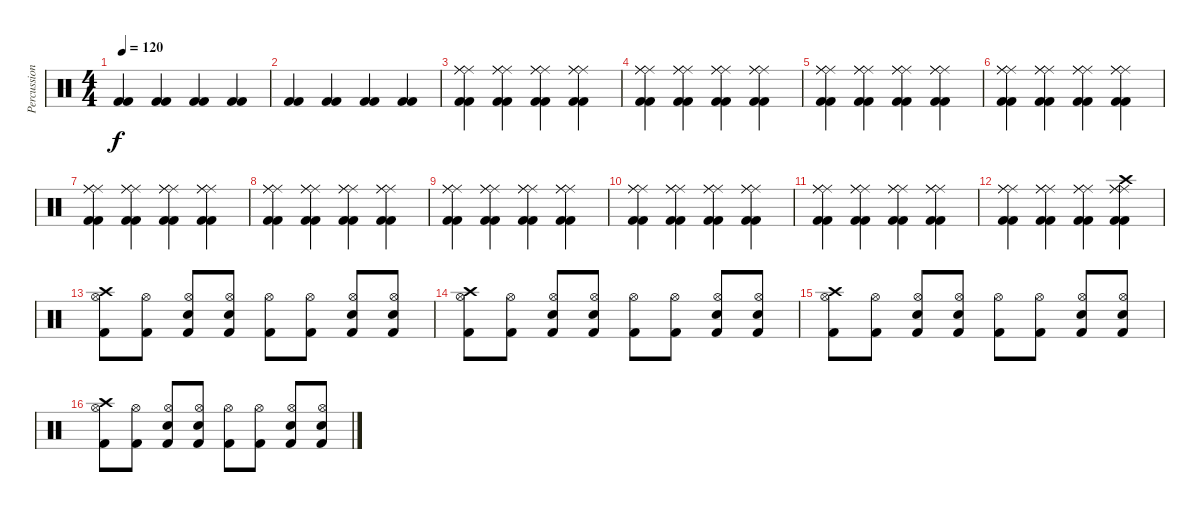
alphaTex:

\track ("Percussioni" "Percussion") {instrument percussion}
\staff {score}
\articulation defaults
\ts (4 4)
\tempo 120
\clef neutral
\ks c
("Kick (hit) 2" "Kick (hit) 2").4{dy f} ("Kick (hit) 2" "Kick (hit) 2").4 ("Kick (hit) 2" "Kick (hit) 2").4 ("Kick (hit) 2" "Kick (hit) 2").4 |
("Kick (hit) 2" "Kick (hit) 2").4 ("Kick (hit) 2" "Kick (hit) 2").4 ("Kick (hit) 2" "Kick (hit) 2").4 ("Kick (hit) 2" "Kick (hit) 2").4 |
("Kick (hit) 2" "Kick (hit) 2" "Ride (middle)" "Ride (middle)" "Ride (middle)").4 ("Kick (hit) 2" "Kick (hit) 2" "Ride (middle)" "Ride (middle)" "Ride (middle)").4 ("Kick (hit) 2" "Kick (hit) 2" "Ride (middle)" "Ride (middle)" "Ride (middle)").4 ("Kick (hit) 2" "Kick (hit) 2" "Ride (middle)" "Ride (middle)" "Ride (middle)").4 |
("Kick (hit) 2" "Kick (hit) 2" "Ride (middle)" "Ride (middle)" "Ride (middle)").4 ("Kick (hit) 2" "Kick (hit) 2" "Ride (middle)" "Ride (middle)" "Ride (middle)").4 ("Kick (hit) 2" "Kick (hit) 2" "Ride (middle)" "Ride (middle)" "Ride (middle)").4 ("Kick (hit) 2" "Kick (hit) 2" "Ride (middle)" "Ride (middle)" "Ride (middle)").4 |
("Kick (hit) 2" "Kick (hit) 2" "Ride (middle)" "Ride (middle)" "Ride (middle)").4 ("Kick (hit) 2" "Kick (hit) 2" "Ride (middle)" "Ride (middle)" "Ride (middle)").4 ("Kick (hit) 2" "Kick (hit) 2" "Ride (middle)" "Ride (middle)" "Ride (middle)").4 ("Kick (hit) 2" "Kick (hit) 2" "Ride (middle)" "Ride (middle)" "Ride (middle)").4 |
("Kick (hit) 2" "Kick (hit) 2" "Ride (middle)" "Ride (middle)" "Ride (middle)").4 ("Kick (hit) 2" "Kick (hit) 2" "Ride (middle)" "Ride (middle)" "Ride (middle)").4 ("Kick (hit) 2" "Kick (hit) 2" "Ride (middle)" "Ride (middle)" "Ride (middle)").4 ("Kick (hit) 2" "Kick (hit) 2" "Ride (middle)" "Ride (middle)" "Ride (middle)").4 |
("Kick (hit) 2" "Kick (hit) 2" "Ride (middle)" "Ride (middle)" "Ride (middle)").4 ("Kick (hit) 2" "Kick (hit) 2" "Ride (middle)" "Ride (middle)" "Ride (middle)").4 ("Kick (hit) 2" "Kick (hit) 2" "Ride (middle)" "Ride (middle)" "Ride (middle)").4 ("Kick (hit) 2" "Kick (hit) 2" "Ride (middle)" "Ride (middle)" "Ride (middle)").4 |
("Kick (hit) 2" "Kick (hit) 2" "Ride (middle)" "Ride (middle)" "Ride (middle)").4 ("Kick (hit) 2" "Kick (hit) 2" "Ride (middle)" "Ride (middle)" "Ride (middle)").4 ("Kick (hit) 2" "Kick (hit) 2" "Ride (middle)" "Ride (middle)" "Ride (middle)").4 ("Kick (hit) 2" "Kick (hit) 2" "Ride (middle)" "Ride (middle)" "Ride (middle)").4 |
("Kick (hit) 2" "Kick (hit) 2" "Ride (middle)" "Ride (middle)" "Ride (middle)").4 ("Kick (hit) 2" "Kick (hit) 2" "Ride (middle)" "Ride (middle)" "Ride (middle)").4 ("Kick (hit) 2" "Kick (hit) 2" "Ride (middle)" "Ride (middle)" "Ride (middle)").4 ("Kick (hit) 2" "Kick (hit) 2" "Ride (middle)" "Ride (middle)" "Ride (middle)").4 |
("Kick (hit) 2" "Kick (hit) 2" "Ride (middle)" "Ride (middle)" "Ride (middle)").4 ("Kick (hit) 2" "Kick (hit) 2" "Ride (middle)" "Ride (middle)" "Ride (middle)").4 ("Kick (hit) 2" "Kick (hit) 2" "Ride (middle)" "Ride (middle)" "Ride (middle)").4 ("Kick (hit) 2" "Kick (hit) 2" "Ride (middle)" "Ride (middle)" "Ride (middle)").4 |
("Kick (hit) 2" "Kick (hit) 2" "Ride (middle)" "Ride (middle)" "Ride (middle)").4 ("Kick (hit) 2" "Kick (hit) 2" "Ride (middle)" "Ride (middle)" "Ride (middle)").4 ("Kick (hit) 2" "Kick (hit) 2" "Ride (middle)" "Ride (middle)" "Ride (middle)").4 ("Kick (hit) 2" "Kick (hit) 2" "Ride (middle)" "Ride (middle)" "Ride (middle)").4 |
("Kick (hit) 2" "Kick (hit) 2" "Ride (middle)" "Ride (middle)" "Ride (middle)").4 ("Kick (hit) 2" "Kick (hit) 2" "Ride (middle)" "Ride (middle)" "Ride (middle)").4 ("Kick (hit) 2" "Kick (hit) 2" "Ride (middle)" "Ride (middle)" "Ride (middle)").4 ("Crash high (hit)" "Kick (hit) 2" "Kick (hit) 2" "Ride (middle)" "Ride (middle)" "Ride (middle)").4 |
("Hi-Hat (open)" "Kick (hit) 2" "Crash high (hit)").8 ("Hi-Hat (open)" "Kick (hit) 2").8 ("Hi-Hat (open)" "Kick (hit) 2" "Electric Snare (hit)").8 ("Hi-Hat (open)" "Kick (hit) 2" "Electric Snare (hit)").8 ("Hi-Hat (open)" "Kick (hit) 2").8 ("Hi-Hat (open)" "Kick (hit) 2").8 ("Hi-Hat (open)" "Kick (hit) 2" "Electric Snare (hit)").8 ("Hi-Hat (open)" "Kick (hit) 2" "Electric Snare (hit)").8 |
("Hi-Hat (open)" "Kick (hit) 2" "Crash high (hit)").8 ("Hi-Hat (open)" "Kick (hit) 2").8 ("Hi-Hat (open)" "Kick (hit) 2" "Electric Snare (hit)").8 ("Hi-Hat (open)" "Kick (hit) 2" "Electric Snare (hit)").8 ("Hi-Hat (open)" "Kick (hit) 2").8 ("Hi-Hat (open)" "Kick (hit) 2").8 ("Hi-Hat (open)" "Kick (hit) 2" "Electric Snare (hit)").8 ("Hi-Hat (open)" "Kick (hit) 2" "Electric Snare (hit)").8 |
("Hi-Hat (open)" "Kick (hit) 2" "Crash high (hit)").8 ("Hi-Hat (open)" "Kick (hit) 2").8 ("Hi-Hat (open)" "Kick (hit) 2" "Electric Snare (hit)").8 ("Hi-Hat (open)" "Kick (hit) 2" "Electric Snare (hit)").8 ("Hi-Hat (open)" "Kick (hit) 2").8 ("Hi-Hat (open)" "Kick (hit) 2").8 ("Hi-Hat (open)" "Kick (hit) 2" "Electric Snare (hit)").8 ("Hi-Hat (open)" "Kick (hit) 2" "Electric Snare (hit)").8 |
("Hi-Hat (open)" "Kick (hit) 2" "Crash high (hit)").8 ("Hi-Hat (open)" "Kick (hit) 2").8 ("Hi-Hat (open)" "Kick (hit) 2" "Electric Snare (hit)").8 ("Hi-Hat (open)" "Kick (hit) 2" "Electric Snare (hit)").8 ("Hi-Hat (open)" "Kick (hit) 2").8 ("Hi-Hat (open)" "Kick (hit) 2").8 ("Hi-Hat (open)" "Kick (hit) 2" "Electric Snare (hit)").8 ("Hi-Hat (open)" "Kick (hit) 2" "Electric Snare (hit)").8
